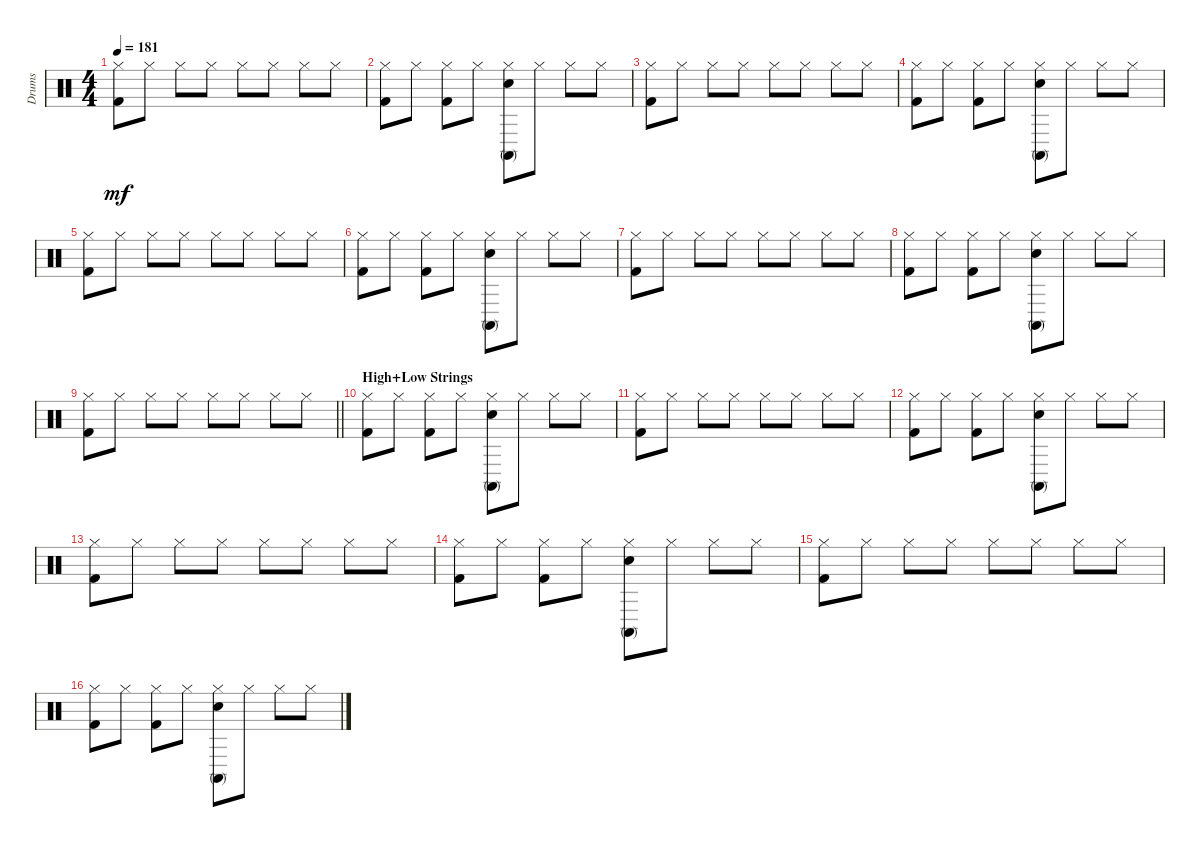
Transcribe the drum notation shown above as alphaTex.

\track ("Drums" "Drums") {instrument percussion}
\staff {score}
\articulation defaults
\ts (4 4)
\tempo 181
\clef neutral
\ks c
("Hi-Hat (closed)" "Kick (hit) 2").8{dy mf} "Hi-Hat (closed)".8 "Hi-Hat (closed)".8 "Hi-Hat (closed)".8 "Hi-Hat (closed)".8 "Hi-Hat (closed)".8 "Hi-Hat (closed)".8 "Hi-Hat (closed)".8 |
("Hi-Hat (closed)" "Kick (hit) 2").8 "Hi-Hat (closed)".8 ("Hi-Hat (closed)" "Kick (hit) 2").8 "Hi-Hat (closed)".8 ("Hi-Hat (closed)" "Conga high (mute)" "Electric Snare (hit)").8 "Hi-Hat (closed)".8 "Hi-Hat (closed)".8 "Hi-Hat (closed)".8 |
("Hi-Hat (closed)" "Kick (hit) 2").8 "Hi-Hat (closed)".8 "Hi-Hat (closed)".8 "Hi-Hat (closed)".8 "Hi-Hat (closed)".8 "Hi-Hat (closed)".8 "Hi-Hat (closed)".8 "Hi-Hat (closed)".8 |
("Hi-Hat (closed)" "Kick (hit) 2").8 "Hi-Hat (closed)".8 ("Hi-Hat (closed)" "Kick (hit) 2").8 "Hi-Hat (closed)".8 ("Hi-Hat (closed)" "Conga high (mute)" "Electric Snare (hit)").8 "Hi-Hat (closed)".8 "Hi-Hat (closed)".8 "Hi-Hat (closed)".8 |
("Hi-Hat (closed)" "Kick (hit) 2").8 "Hi-Hat (closed)".8 "Hi-Hat (closed)".8 "Hi-Hat (closed)".8 "Hi-Hat (closed)".8 "Hi-Hat (closed)".8 "Hi-Hat (closed)".8 "Hi-Hat (closed)".8 |
("Hi-Hat (closed)" "Kick (hit) 2").8 "Hi-Hat (closed)".8 ("Hi-Hat (closed)" "Kick (hit) 2").8 "Hi-Hat (closed)".8 ("Hi-Hat (closed)" "Conga high (mute)" "Electric Snare (hit)").8 "Hi-Hat (closed)".8 "Hi-Hat (closed)".8 "Hi-Hat (closed)".8 |
("Hi-Hat (closed)" "Kick (hit) 2").8 "Hi-Hat (closed)".8 "Hi-Hat (closed)".8 "Hi-Hat (closed)".8 "Hi-Hat (closed)".8 "Hi-Hat (closed)".8 "Hi-Hat (closed)".8 "Hi-Hat (closed)".8 |
("Hi-Hat (closed)" "Kick (hit) 2").8 "Hi-Hat (closed)".8 ("Hi-Hat (closed)" "Kick (hit) 2").8 "Hi-Hat (closed)".8 ("Hi-Hat (closed)" "Conga high (mute)" "Electric Snare (hit)").8 "Hi-Hat (closed)".8 "Hi-Hat (closed)".8 "Hi-Hat (closed)".8 |
\barLineRight lightlight
("Hi-Hat (closed)" "Kick (hit) 2").8 "Hi-Hat (closed)".8 "Hi-Hat (closed)".8 "Hi-Hat (closed)".8 "Hi-Hat (closed)".8 "Hi-Hat (closed)".8 "Hi-Hat (closed)".8 "Hi-Hat (closed)".8 |
\section ("" "High+Low Strings")
("Hi-Hat (closed)" "Kick (hit) 2").8 "Hi-Hat (closed)".8 ("Hi-Hat (closed)" "Kick (hit) 2").8 "Hi-Hat (closed)".8 ("Hi-Hat (closed)" "Conga high (mute)" "Electric Snare (hit)").8 "Hi-Hat (closed)".8 "Hi-Hat (closed)".8 "Hi-Hat (closed)".8 |
("Hi-Hat (closed)" "Kick (hit) 2").8 "Hi-Hat (closed)".8 "Hi-Hat (closed)".8 "Hi-Hat (closed)".8 "Hi-Hat (closed)".8 "Hi-Hat (closed)".8 "Hi-Hat (closed)".8 "Hi-Hat (closed)".8 |
("Hi-Hat (closed)" "Kick (hit) 2").8 "Hi-Hat (closed)".8 ("Hi-Hat (closed)" "Kick (hit) 2").8 "Hi-Hat (closed)".8 ("Hi-Hat (closed)" "Conga high (mute)" "Electric Snare (hit)").8 "Hi-Hat (closed)".8 "Hi-Hat (closed)".8 "Hi-Hat (closed)".8 |
("Hi-Hat (closed)" "Kick (hit) 2").8 "Hi-Hat (closed)".8 "Hi-Hat (closed)".8 "Hi-Hat (closed)".8 "Hi-Hat (closed)".8 "Hi-Hat (closed)".8 "Hi-Hat (closed)".8 "Hi-Hat (closed)".8 |
("Hi-Hat (closed)" "Kick (hit) 2").8 "Hi-Hat (closed)".8 ("Hi-Hat (closed)" "Kick (hit) 2").8 "Hi-Hat (closed)".8 ("Hi-Hat (closed)" "Conga high (mute)" "Electric Snare (hit)").8 "Hi-Hat (closed)".8 "Hi-Hat (closed)".8 "Hi-Hat (closed)".8 |
("Hi-Hat (closed)" "Kick (hit) 2").8 "Hi-Hat (closed)".8 "Hi-Hat (closed)".8 "Hi-Hat (closed)".8 "Hi-Hat (closed)".8 "Hi-Hat (closed)".8 "Hi-Hat (closed)".8 "Hi-Hat (closed)".8 |
("Hi-Hat (closed)" "Kick (hit) 2").8 "Hi-Hat (closed)".8 ("Hi-Hat (closed)" "Kick (hit) 2").8 "Hi-Hat (closed)".8 ("Hi-Hat (closed)" "Conga high (mute)" "Electric Snare (hit)").8 "Hi-Hat (closed)".8 "Hi-Hat (closed)".8 "Hi-Hat (closed)".8
